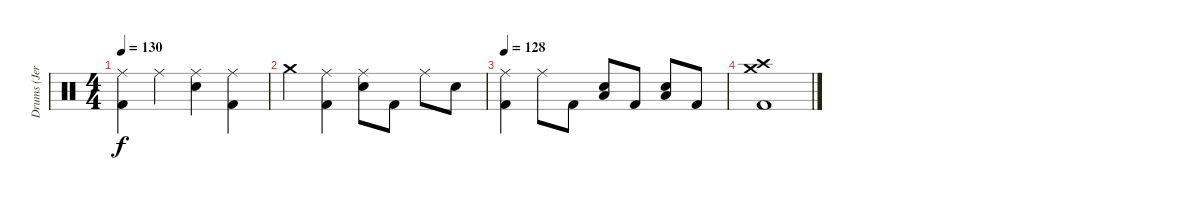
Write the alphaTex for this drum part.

\track ("Drums (Jeremy Taggart)" "Drums (Jer") {instrument percussion}
\staff
\articulation defaults
\ts (4 4)
\tempo 130
\clef neutral
\ks c
("Ride (middle)" "Kick (hit) 2").4{dy f} "Ride (middle)".4 ("Ride (middle)" "Snare (hit) 2").4 ("Ride (middle)" "Kick (hit) 2").4 |
"Crash medium (hit)".4 ("Ride (middle)" "Kick (hit) 2").4 ("Ride (middle)" "Snare (hit) 2").8 "Kick (hit) 2".8 "Ride (middle)".8 "Snare (hit) 2".8 |
\tempo 128
("Ride (middle)" "Kick (hit) 2").4 "Ride (middle)".8 "Kick (hit) 2".8 ("Low Floor Tom (hit)" "Snare (hit) 2").8 "Kick (hit) 2".8 ("Low Floor Tom (hit)" "Snare (hit) 2").8 "Kick (hit) 2".8 |
("Crash medium (hit)" "Crash high (hit)" "Kick (hit) 2").1
